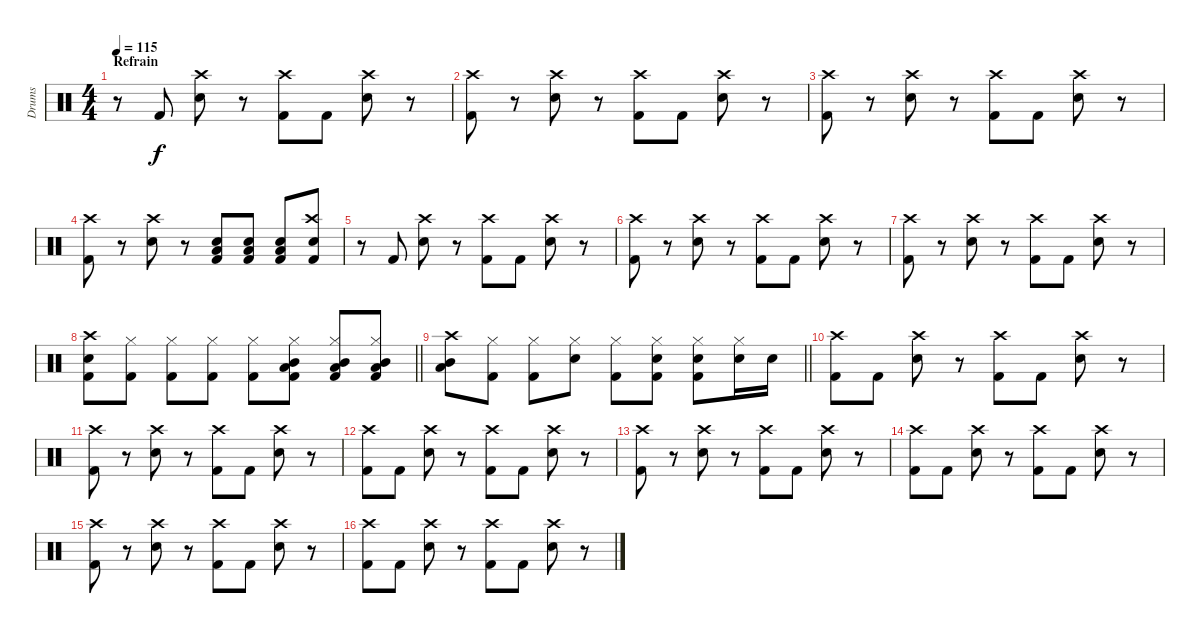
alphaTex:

\track ("Drums" "Drums") {instrument percussion}
\staff {score}
\articulation defaults
\ts (4 4)
\section ("" "Refrain")
\tempo 115
\clef neutral
\ks c
r.8{dy f} "Kick (hit) 2".8 ("Crash high (hit)" "Snare (hit) 2").8 r.8 ("Crash high (hit)" "Kick (hit) 2").8 "Kick (hit) 2".8 ("Crash high (hit)" "Snare (hit) 2").8 r.8 |
("Crash high (hit)" "Kick (hit) 2").8 r.8 ("Crash high (hit)" "Snare (hit) 2").8 r.8 ("Crash high (hit)" "Kick (hit) 2").8 "Kick (hit) 2".8 ("Crash high (hit)" "Snare (hit) 2").8 r.8 |
("Crash high (hit)" "Kick (hit) 2").8 r.8 ("Crash high (hit)" "Snare (hit) 2").8 r.8 ("Crash high (hit)" "Kick (hit) 2").8 "Kick (hit) 2".8 ("Crash high (hit)" "Snare (hit) 2").8 r.8 |
("Crash high (hit)" "Kick (hit) 2").8 r.8 ("Crash high (hit)" "Snare (hit) 2").8 r.8 ("Snare (hit) 2" "Low Tom (hit)" "Kick (hit) 2").8 ("Snare (hit) 2" "Low Tom (hit)" "Kick (hit) 2").8 ("Snare (hit) 2" "Low Tom (hit)" "Kick (hit) 2").8 ("Crash high (hit)" "Snare (hit) 2" "Kick (hit) 2").8 |
r.8 "Kick (hit) 2".8 ("Crash high (hit)" "Snare (hit) 2").8 r.8 ("Crash high (hit)" "Kick (hit) 2").8 "Kick (hit) 2".8 ("Crash high (hit)" "Snare (hit) 2").8 r.8 |
("Crash high (hit)" "Kick (hit) 2").8 r.8 ("Crash high (hit)" "Snare (hit) 2").8 r.8 ("Crash high (hit)" "Kick (hit) 2").8 "Kick (hit) 2".8 ("Crash high (hit)" "Snare (hit) 2").8 r.8 |
("Crash high (hit)" "Kick (hit) 2").8 r.8 ("Crash high (hit)" "Snare (hit) 2").8 r.8 ("Crash high (hit)" "Kick (hit) 2").8 "Kick (hit) 2".8 ("Crash high (hit)" "Snare (hit) 2").8 r.8 |
\barLineRight lightlight
("Crash high (hit)" "Snare (hit) 2" "Kick (hit) 2").8 ("Hi-Hat (closed)" "Kick (hit) 2").8 ("Hi-Hat (closed)" "Kick (hit) 2").8 ("Hi-Hat (closed)" "Kick (hit) 2").8 ("Hi-Hat (closed)" "Kick (hit) 2").8 ("Hi-Hat (closed)" "Low Tom (hit)" "Mid Tom (hit)" "Kick (hit) 2").8 ("Hi-Hat (closed)" "Low Tom (hit)" "Mid Tom (hit)" "Kick (hit) 2").8 ("Hi-Hat (closed)" "Low Tom (hit)" "Mid Tom (hit)" "Kick (hit) 2").8 |
\barLineRight lightlight
("Crash high (hit)" "Low Tom (hit)" "Mid Tom (hit)").8 ("Hi-Hat (closed)" "Kick (hit) 2").8 ("Hi-Hat (closed)" "Kick (hit) 2").8 ("Hi-Hat (closed)" "Snare (hit) 2").8 ("Hi-Hat (closed)" "Kick (hit) 2").8 ("Hi-Hat (closed)" "Snare (hit) 2" "Kick (hit) 2").8 ("Hi-Hat (closed)" "Snare (hit) 2" "Kick (hit) 2").8 ("Hi-Hat (closed)" "Snare (hit) 2").16 "Snare (hit) 2".16 |
\section ("" "")
("Crash high (hit)" "Kick (hit) 2").8 "Kick (hit) 2".8 ("Crash high (hit)" "Snare (hit) 2").8 r.8 ("Crash high (hit)" "Kick (hit) 2").8 "Kick (hit) 2".8 ("Crash high (hit)" "Snare (hit) 2").8 r.8 |
("Crash high (hit)" "Kick (hit) 2").8 r.8 ("Crash high (hit)" "Snare (hit) 2").8 r.8 ("Crash high (hit)" "Kick (hit) 2").8 "Kick (hit) 2".8 ("Crash high (hit)" "Snare (hit) 2").8 r.8 |
("Crash high (hit)" "Kick (hit) 2").8 "Kick (hit) 2".8 ("Crash high (hit)" "Snare (hit) 2").8 r.8 ("Crash high (hit)" "Kick (hit) 2").8 "Kick (hit) 2".8 ("Crash high (hit)" "Snare (hit) 2").8 r.8 |
("Crash high (hit)" "Kick (hit) 2").8 r.8 ("Crash high (hit)" "Snare (hit) 2").8 r.8 ("Crash high (hit)" "Kick (hit) 2").8 "Kick (hit) 2".8 ("Crash high (hit)" "Snare (hit) 2").8 r.8 |
("Crash high (hit)" "Kick (hit) 2").8 "Kick (hit) 2".8 ("Crash high (hit)" "Snare (hit) 2").8 r.8 ("Crash high (hit)" "Kick (hit) 2").8 "Kick (hit) 2".8 ("Crash high (hit)" "Snare (hit) 2").8 r.8 |
("Crash high (hit)" "Kick (hit) 2").8 r.8 ("Crash high (hit)" "Snare (hit) 2").8 r.8 ("Crash high (hit)" "Kick (hit) 2").8 "Kick (hit) 2".8 ("Crash high (hit)" "Snare (hit) 2").8 r.8 |
("Crash high (hit)" "Kick (hit) 2").8 "Kick (hit) 2".8 ("Crash high (hit)" "Snare (hit) 2").8 r.8 ("Crash high (hit)" "Kick (hit) 2").8 "Kick (hit) 2".8 ("Crash high (hit)" "Snare (hit) 2").8 r.8
